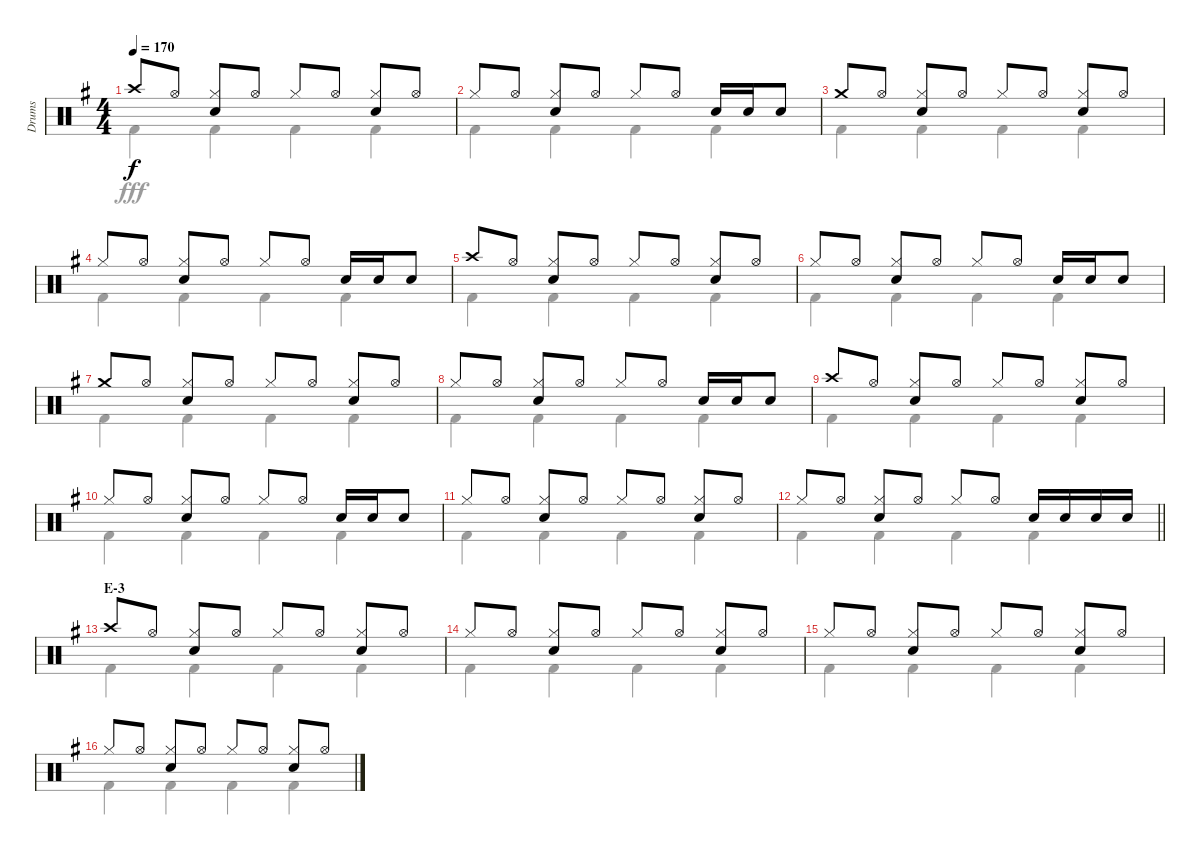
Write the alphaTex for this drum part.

\track ("Drums" "Drums") {instrument percussion}
\staff {score}
\articulation defaults
\voice
\ts (4 4)
\tempo 170
\clef neutral
\ks g "Crash high (hit)".8{dy f} "Hi-Hat (open)".8
("Hi-Hat (closed)" "Snare (hit) 2").8 "Hi-Hat (open)".8 "Hi-Hat (closed)".8 "Hi-Hat (open)".8 ("Hi-Hat (closed)" "Snare (hit) 2").8 "Hi-Hat (open)".8 |
"Hi-Hat (closed)".8 "Hi-Hat (open)".8 ("Hi-Hat (closed)" "Snare (hit) 2").8 "Hi-Hat (open)".8 "Hi-Hat (closed)".8 "Hi-Hat (open)".8 "Snare (hit) 2".16 "Snare (hit) 2".16 "Snare (hit) 2".8 |
"Crash medium (hit)".8 "Hi-Hat (open)".8 ("Hi-Hat (closed)" "Snare (hit) 2").8 "Hi-Hat (open)".8 "Hi-Hat (closed)".8 "Hi-Hat (open)".8 ("Hi-Hat (closed)" "Snare (hit) 2").8 "Hi-Hat (open)".8 |
"Hi-Hat (closed)".8 "Hi-Hat (open)".8 ("Hi-Hat (closed)" "Snare (hit) 2").8 "Hi-Hat (open)".8 "Hi-Hat (closed)".8 "Hi-Hat (open)".8 "Snare (hit) 2".16 "Snare (hit) 2".16 "Snare (hit) 2".8 |
"Crash high (hit)".8 "Hi-Hat (open)".8 ("Hi-Hat (closed)" "Snare (hit) 2").8 "Hi-Hat (open)".8 "Hi-Hat (closed)".8 "Hi-Hat (open)".8 ("Hi-Hat (closed)" "Snare (hit) 2").8 "Hi-Hat (open)".8 |
"Hi-Hat (closed)".8 "Hi-Hat (open)".8 ("Hi-Hat (closed)" "Snare (hit) 2").8 "Hi-Hat (open)".8 "Hi-Hat (closed)".8 "Hi-Hat (open)".8 "Snare (hit) 2".16 "Snare (hit) 2".16 "Snare (hit) 2".8 |
"Crash medium (hit)".8 "Hi-Hat (open)".8 ("Hi-Hat (closed)" "Snare (hit) 2").8 "Hi-Hat (open)".8 "Hi-Hat (closed)".8 "Hi-Hat (open)".8 ("Hi-Hat (closed)" "Snare (hit) 2").8 "Hi-Hat (open)".8 |
"Hi-Hat (closed)".8 "Hi-Hat (open)".8 ("Hi-Hat (closed)" "Snare (hit) 2").8 "Hi-Hat (open)".8 "Hi-Hat (closed)".8 "Hi-Hat (open)".8 "Snare (hit) 2".16 "Snare (hit) 2".16 "Snare (hit) 2".8 |
"Crash high (hit)".8 "Hi-Hat (open)".8 ("Hi-Hat (closed)" "Snare (hit) 2").8 "Hi-Hat (open)".8 "Hi-Hat (closed)".8 "Hi-Hat (open)".8 ("Hi-Hat (closed)" "Snare (hit) 2").8 "Hi-Hat (open)".8 |
"Hi-Hat (closed)".8 "Hi-Hat (open)".8 ("Hi-Hat (closed)" "Snare (hit) 2").8 "Hi-Hat (open)".8 "Hi-Hat (closed)".8 "Hi-Hat (open)".8 "Snare (hit) 2".16 "Snare (hit) 2".16 "Snare (hit) 2".8 |
"Hi-Hat (closed)".8 "Hi-Hat (open)".8 ("Hi-Hat (closed)" "Snare (hit) 2").8 "Hi-Hat (open)".8 "Hi-Hat (closed)".8 "Hi-Hat (open)".8 ("Hi-Hat (closed)" "Snare (hit) 2").8 "Hi-Hat (open)".8 |
\barLineRight lightlight "Hi-Hat (closed)".8 "Hi-Hat (open)".8
("Hi-Hat (closed)" "Snare (hit) 2").8 "Hi-Hat (open)".8 "Hi-Hat (closed)".8 "Hi-Hat (open)".8 "Snare (hit) 2".16 "Snare (hit) 2".16 "Snare (hit) 2".16 "Snare (hit) 2".16 |
\section ("" "E-3")
"Crash high (hit)".8 "Hi-Hat (open)".8 ("Hi-Hat (closed)" "Snare (hit) 2").8 "Hi-Hat (open)".8 "Hi-Hat (closed)".8 "Hi-Hat (open)".8 ("Hi-Hat (closed)" "Snare (hit) 2").8 "Hi-Hat (open)".8 |
"Hi-Hat (closed)".8 "Hi-Hat (open)".8 ("Hi-Hat (closed)" "Snare (hit) 2").8 "Hi-Hat (open)".8 "Hi-Hat (closed)".8 "Hi-Hat (open)".8 ("Hi-Hat (closed)" "Snare (hit) 2").8 "Hi-Hat (open)".8 |
"Hi-Hat (closed)".8 "Hi-Hat (open)".8 ("Hi-Hat (closed)" "Snare (hit) 2").8 "Hi-Hat (open)".8 "Hi-Hat (closed)".8 "Hi-Hat (open)".8 ("Hi-Hat (closed)" "Snare (hit) 2").8 "Hi-Hat (open)".8 |
"Hi-Hat (closed)".8 "Hi-Hat (open)".8 ("Hi-Hat (closed)" "Snare (hit) 2").8 "Hi-Hat (open)".8 "Hi-Hat (closed)".8 "Hi-Hat (open)".8 ("Hi-Hat (closed)" "Snare (hit) 2").8 "Hi-Hat (open)".8
\voice
\clef neutral
\ottava regular
\simile none
\ks g "Kick (hit) 2".4{dy fff} "Kick (hit) 2".4 "Kick (hit) 2".4 "Kick (hit) 2".4
|
"Kick (hit) 2".4 "Kick (hit) 2".4 "Kick (hit) 2".4 "Kick (hit) 2".4 |
"Kick (hit) 2".4 "Kick (hit) 2".4 "Kick (hit) 2".4 "Kick (hit) 2".4 |
"Kick (hit) 2".4 "Kick (hit) 2".4 "Kick (hit) 2".4 "Kick (hit) 2".4 |
"Kick (hit) 2".4 "Kick (hit) 2".4 "Kick (hit) 2".4 "Kick (hit) 2".4 |
"Kick (hit) 2".4 "Kick (hit) 2".4 "Kick (hit) 2".4 "Kick (hit) 2".4 |
"Kick (hit) 2".4 "Kick (hit) 2".4 "Kick (hit) 2".4 "Kick (hit) 2".4 |
"Kick (hit) 2".4 "Kick (hit) 2".4 "Kick (hit) 2".4 "Kick (hit) 2".4 |
"Kick (hit) 2".4 "Kick (hit) 2".4 "Kick (hit) 2".4 "Kick (hit) 2".4 |
"Kick (hit) 2".4 "Kick (hit) 2".4 "Kick (hit) 2".4 "Kick (hit) 2".4 |
"Kick (hit) 2".4 "Kick (hit) 2".4 "Kick (hit) 2".4 "Kick (hit) 2".4 |
\barLineRight lightlight "Kick (hit) 2".4 "Kick (hit) 2".4 "Kick (hit) 2".4 "Kick (hit) 2".4
|
"Kick (hit) 2".4 "Kick (hit) 2".4 "Kick (hit) 2".4 "Kick (hit) 2".4 |
"Kick (hit) 2".4 "Kick (hit) 2".4 "Kick (hit) 2".4 "Kick (hit) 2".4 |
"Kick (hit) 2".4 "Kick (hit) 2".4 "Kick (hit) 2".4 "Kick (hit) 2".4 |
"Kick (hit) 2".4 "Kick (hit) 2".4 "Kick (hit) 2".4 "Kick (hit) 2".4
